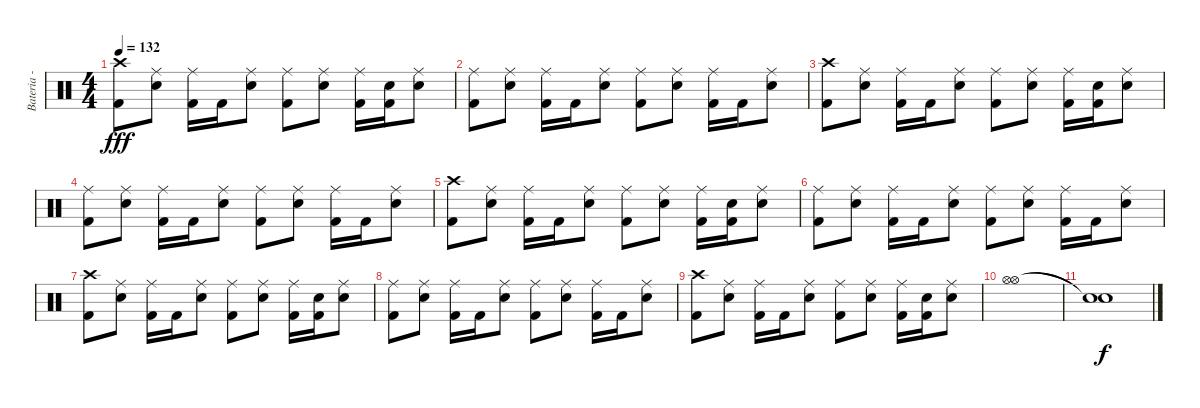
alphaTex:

\track ("Bateria - Larzon" "Bateria - ") {instrument percussion}
\staff {score}
\articulation defaults
\ts (4 4)
\tempo 132
\clef neutral
\ks c
("Kick (hit) 2" "Crash high (hit)").8{dy fff} ("Electric Snare (hit)" "Ride (middle)").8 ("Ride (middle)" "Kick (hit) 2").16 "Kick (hit) 2".16 ("Electric Snare (hit)" "Ride (middle)").8 ("Kick (hit) 2" "Ride (middle)").8 ("Electric Snare (hit)" "Ride (middle)").8 ("Kick (hit) 2" "Ride (middle)").16 ("Kick (hit) 2" "Electric Snare (hit)").16 ("Electric Snare (hit)" "Ride (middle)").8 |
("Kick (hit) 2" "Ride (middle)").8 ("Electric Snare (hit)" "Ride (middle)").8 ("Kick (hit) 2" "Ride (middle)").16 "Kick (hit) 2".16 ("Electric Snare (hit)" "Ride (middle)").8 ("Kick (hit) 2" "Ride (middle)").8 ("Electric Snare (hit)" "Ride (middle)").8 ("Kick (hit) 2" "Ride (middle)").16 "Kick (hit) 2".16 ("Electric Snare (hit)" "Ride (middle)").8 |
("Kick (hit) 2" "Crash high (hit)").8 ("Electric Snare (hit)" "Ride (middle)").8 ("Ride (middle)" "Kick (hit) 2").16 "Kick (hit) 2".16 ("Electric Snare (hit)" "Ride (middle)").8 ("Kick (hit) 2" "Ride (middle)").8 ("Electric Snare (hit)" "Ride (middle)").8 ("Kick (hit) 2" "Ride (middle)").16 ("Kick (hit) 2" "Electric Snare (hit)").16 ("Electric Snare (hit)" "Ride (middle)").8 |
("Kick (hit) 2" "Ride (middle)").8 ("Electric Snare (hit)" "Ride (middle)").8 ("Kick (hit) 2" "Ride (middle)").16 "Kick (hit) 2".16 ("Electric Snare (hit)" "Ride (middle)").8 ("Kick (hit) 2" "Ride (middle)").8 ("Electric Snare (hit)" "Ride (middle)").8 ("Kick (hit) 2" "Ride (middle)").16 "Kick (hit) 2".16 ("Electric Snare (hit)" "Ride (middle)").8 |
("Kick (hit) 2" "Crash high (hit)").8 ("Electric Snare (hit)" "Ride (middle)").8 ("Ride (middle)" "Kick (hit) 2").16 "Kick (hit) 2".16 ("Electric Snare (hit)" "Ride (middle)").8 ("Kick (hit) 2" "Ride (middle)").8 ("Electric Snare (hit)" "Ride (middle)").8 ("Kick (hit) 2" "Ride (middle)").16 ("Kick (hit) 2" "Electric Snare (hit)").16 ("Electric Snare (hit)" "Ride (middle)").8 |
("Kick (hit) 2" "Ride (middle)").8 ("Electric Snare (hit)" "Ride (middle)").8 ("Kick (hit) 2" "Ride (middle)").16 "Kick (hit) 2".16 ("Electric Snare (hit)" "Ride (middle)").8 ("Kick (hit) 2" "Ride (middle)").8 ("Electric Snare (hit)" "Ride (middle)").8 ("Kick (hit) 2" "Ride (middle)").16 "Kick (hit) 2".16 ("Electric Snare (hit)" "Ride (middle)").8 |
("Kick (hit) 2" "Crash high (hit)").8 ("Electric Snare (hit)" "Ride (middle)").8 ("Ride (middle)" "Kick (hit) 2").16 "Kick (hit) 2".16 ("Electric Snare (hit)" "Ride (middle)").8 ("Kick (hit) 2" "Ride (middle)").8 ("Electric Snare (hit)" "Ride (middle)").8 ("Kick (hit) 2" "Ride (middle)").16 ("Kick (hit) 2" "Electric Snare (hit)").16 ("Electric Snare (hit)" "Ride (middle)").8 |
("Kick (hit) 2" "Ride (middle)").8 ("Electric Snare (hit)" "Ride (middle)").8 ("Kick (hit) 2" "Ride (middle)").16 "Kick (hit) 2".16 ("Electric Snare (hit)" "Ride (middle)").8 ("Kick (hit) 2" "Ride (middle)").8 ("Electric Snare (hit)" "Ride (middle)").8 ("Kick (hit) 2" "Ride (middle)").16 "Kick (hit) 2".16 ("Electric Snare (hit)" "Ride (middle)").8 |
("Kick (hit) 2" "Crash high (hit)").8 ("Electric Snare (hit)" "Ride (middle)").8 ("Ride (middle)" "Kick (hit) 2").16 "Kick (hit) 2".16 ("Electric Snare (hit)" "Ride (middle)").8 ("Kick (hit) 2" "Ride (middle)").8 ("Electric Snare (hit)" "Ride (middle)").8 ("Kick (hit) 2" "Ride (middle)").16 ("Kick (hit) 2" "Electric Snare (hit)").16 ("Electric Snare (hit)" "Ride (middle)").8 |
("Hi-Hat (open)" "Hi-Hat (open)").1 |
("Snare (hit)"{t} "Snare (hit)"{t}).1{dy f}
